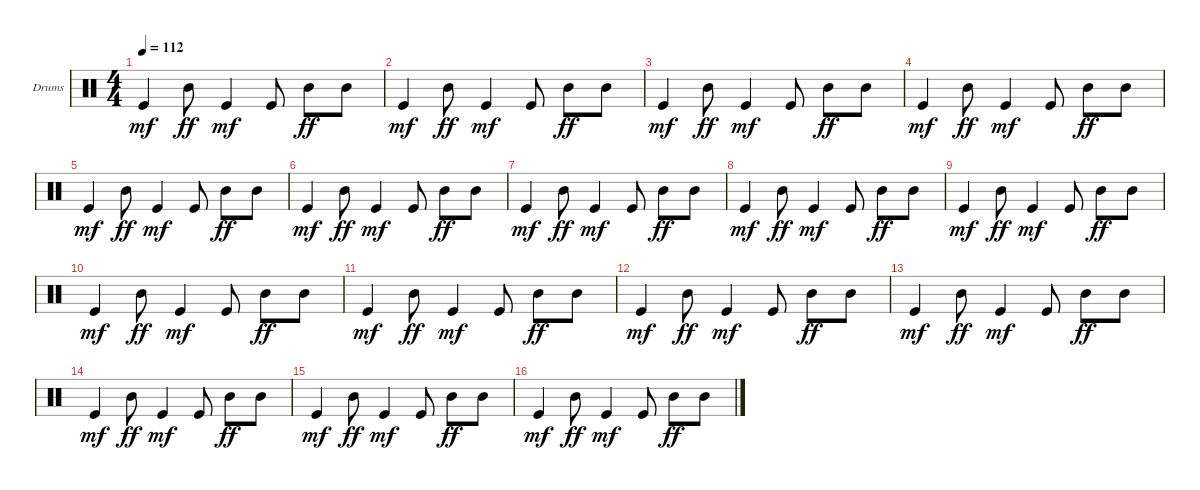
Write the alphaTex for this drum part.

\defaultSystemsLayout 4
\bracketExtendMode groupsimilarinstruments
\firstSystemTrackNameOrientation horizontal
\otherSystemsTrackNameOrientation horizontal
\track ("Drumkit" "Drums") {instrument percussion}
\staff {score}
\articulation defaults
\ts (4 4)
\tempo 112
\clef neutral
\scale
1.17024
\ks c "Kick (hit)".4{dy mf} "Mid Tom (hit)".8{dy ff} "Kick (hit)".4{dy mf} "Kick (hit)".8 "Mid Tom (hit)".8{dy ff} "Mid Tom (hit)".8
|
\scale
0.943253 "Kick (hit)".4{dy mf} "Mid Tom (hit)".8{dy ff} "Kick (hit)".4{dy mf} "Kick (hit)".8 "Mid Tom (hit)".8{dy ff} "Mid Tom (hit)".8 |
\scale
0.943253 "Kick (hit)".4{dy mf} "Mid Tom (hit)".8{dy ff} "Kick (hit)".4{dy mf} "Kick (hit)".8 "Mid Tom (hit)".8{dy ff} "Mid Tom (hit)".8 |
\scale
0.943253 "Kick (hit)".4{dy mf} "Mid Tom (hit)".8{dy ff} "Kick (hit)".4{dy mf} "Kick (hit)".8 "Mid Tom (hit)".8{dy ff} "Mid Tom (hit)".8 |
\scale
1.07945 "Kick (hit)".4{dy mf} "Mid Tom (hit)".8{dy ff} "Kick (hit)".4{dy mf} "Kick (hit)".8 "Mid Tom (hit)".8{dy ff} "Mid Tom (hit)".8 |
\scale
0.973518 "Kick (hit)".4{dy mf} "Mid Tom (hit)".8{dy ff} "Kick (hit)".4{dy mf} "Kick (hit)".8 "Mid Tom (hit)".8{dy ff} "Mid Tom (hit)".8 |
\scale
0.973518 "Kick (hit)".4{dy mf} "Mid Tom (hit)".8{dy ff} "Kick (hit)".4{dy mf} "Kick (hit)".8 "Mid Tom (hit)".8{dy ff} "Mid Tom (hit)".8 |
\scale
0.973518 "Kick (hit)".4{dy mf} "Mid Tom (hit)".8{dy ff} "Kick (hit)".4{dy mf} "Kick (hit)".8 "Mid Tom (hit)".8{dy ff} "Mid Tom (hit)".8 |
\scale
1.07945 "Kick (hit)".4{dy mf} "Mid Tom (hit)".8{dy ff} "Kick (hit)".4{dy mf} "Kick (hit)".8 "Mid Tom (hit)".8{dy ff} "Mid Tom (hit)".8 |
\scale
0.973518 "Kick (hit)".4{dy mf} "Mid Tom (hit)".8{dy ff} "Kick (hit)".4{dy mf} "Kick (hit)".8 "Mid Tom (hit)".8{dy ff} "Mid Tom (hit)".8 |
\scale
0.973518 "Kick (hit)".4{dy mf} "Mid Tom (hit)".8{dy ff} "Kick (hit)".4{dy mf} "Kick (hit)".8 "Mid Tom (hit)".8{dy ff} "Mid Tom (hit)".8 |
\scale
0.973518 "Kick (hit)".4{dy mf} "Mid Tom (hit)".8{dy ff} "Kick (hit)".4{dy mf} "Kick (hit)".8 "Mid Tom (hit)".8{dy ff} "Mid Tom (hit)".8 |
\scale
1.07945 "Kick (hit)".4{dy mf} "Mid Tom (hit)".8{dy ff} "Kick (hit)".4{dy mf} "Kick (hit)".8 "Mid Tom (hit)".8{dy ff} "Mid Tom (hit)".8 |
\scale
0.973518 "Kick (hit)".4{dy mf} "Mid Tom (hit)".8{dy ff} "Kick (hit)".4{dy mf} "Kick (hit)".8 "Mid Tom (hit)".8{dy ff} "Mid Tom (hit)".8 |
\scale
0.973518 "Kick (hit)".4{dy mf} "Mid Tom (hit)".8{dy ff} "Kick (hit)".4{dy mf} "Kick (hit)".8 "Mid Tom (hit)".8{dy ff} "Mid Tom (hit)".8 |
\scale
0.973518 "Kick (hit)".4{dy mf} "Mid Tom (hit)".8{dy ff} "Kick (hit)".4{dy mf} "Kick (hit)".8 "Mid Tom (hit)".8{dy ff} "Mid Tom (hit)".8
